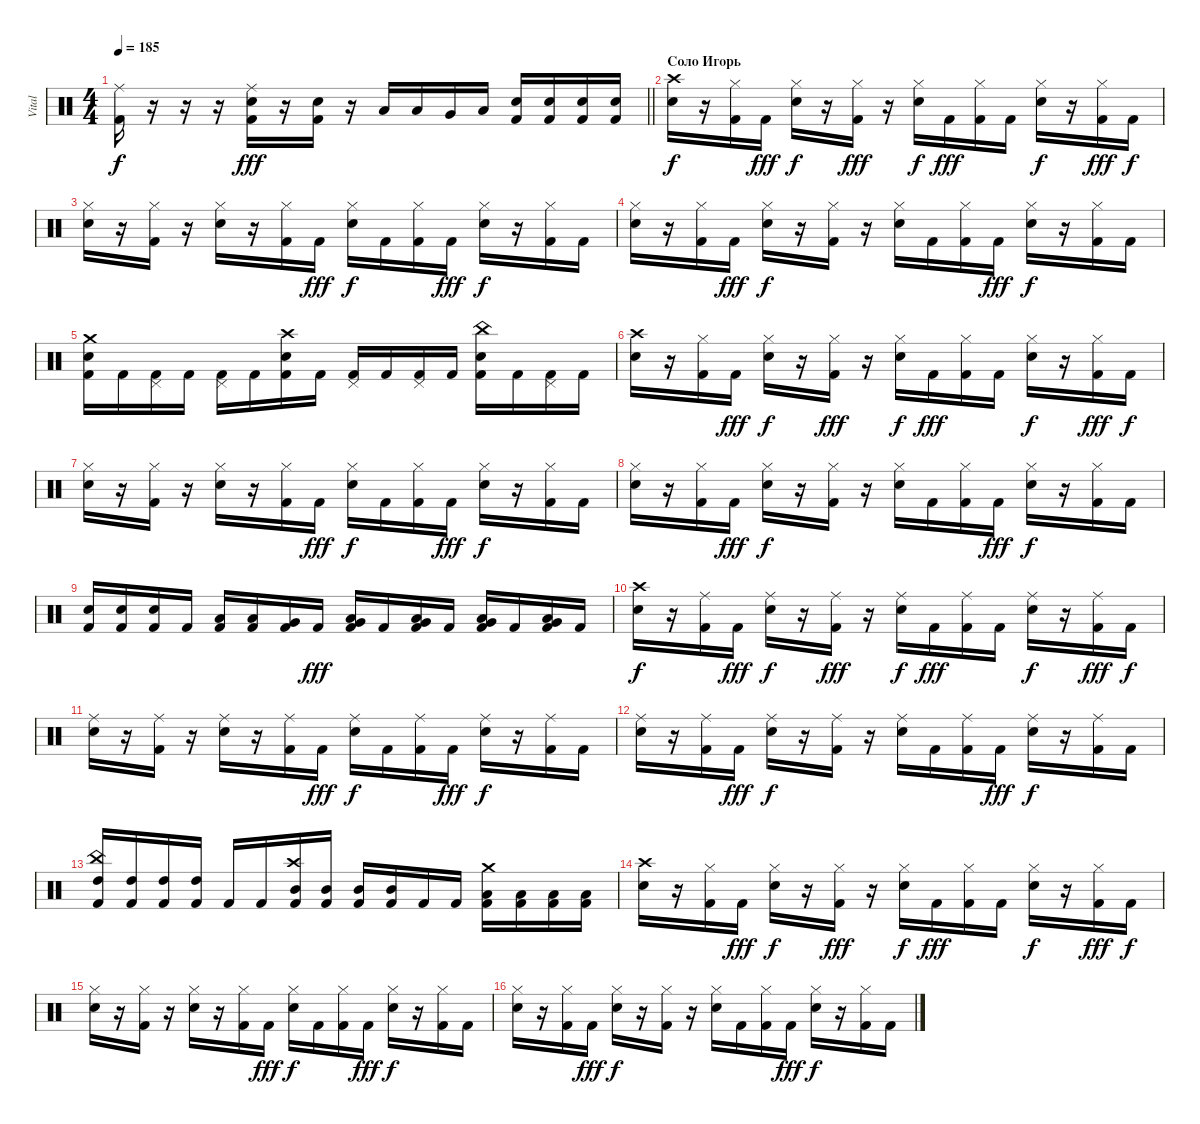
\track ("Vital" "Vital") {instrument percussion}
\staff {score}
\articulation defaults
\ts (4 4)
\tempo 185
\clef neutral
\barLineRight lightlight
\ks c
("Ride (middle)" "Kick (hit) 2").16{dy f} r.16 r.16 r.16 ("Ride (middle)" "Snare (hit) 2" "Kick (hit) 2").16{dy fff} r.16 ("Snare (hit) 2" "Kick (hit) 2").16 r.16 "Low Tom (hit)".16 "Low Tom (hit)".16 "Very Low Tom (hit)".16 "Low Floor Tom (hit)".16 ("Snare (hit) 2" "Kick (hit) 2").16 ("Snare (hit) 2" "Kick (hit) 2").16 ("Snare (hit) 2" "Kick (hit) 2").16 ("Snare (hit) 2" "Kick (hit) 2").16 |
\section ("" "Соло Игорь")
("Crash high (hit)" "Snare (hit) 2").16{dy f} r.16 ("Hi-Hat (closed)" "Kick (hit) 2").16 "Kick (hit) 2".16{dy fff} ("Hi-Hat (closed)" "Snare (hit) 2").16{dy f} r.16 ("Hi-Hat (closed)" "Kick (hit) 2").16{dy fff} r.16 ("Hi-Hat (closed)" "Snare (hit) 2").16{dy f} "Kick (hit) 2".16{dy fff} ("Hi-Hat (closed)" "Kick (hit) 2").16 "Kick (hit) 2".16 ("Hi-Hat (closed)" "Snare (hit) 2").16{dy f} r.16 ("Hi-Hat (closed)" "Kick (hit) 2").16{dy fff} "Kick (hit) 2".16{dy f} |
("Hi-Hat (closed)" "Snare (hit) 2").16 r.16 ("Hi-Hat (closed)" "Kick (hit) 2").16 r.16 ("Hi-Hat (closed)" "Snare (hit) 2").16 r.16 ("Hi-Hat (closed)" "Kick (hit) 2").16 "Kick (hit) 2".16{dy fff} ("Hi-Hat (closed)" "Snare (hit) 2").16{dy f} "Kick (hit) 2".16 ("Hi-Hat (closed)" "Kick (hit) 2").16 "Kick (hit) 2".16{dy fff} ("Hi-Hat (closed)" "Snare (hit) 2").16{dy f} r.16 ("Hi-Hat (closed)" "Kick (hit) 2").16 "Kick (hit) 2".16 |
("Hi-Hat (closed)" "Snare (hit) 2").16 r.16 ("Hi-Hat (closed)" "Kick (hit) 2").16 "Kick (hit) 2".16{dy fff} ("Hi-Hat (closed)" "Snare (hit) 2").16{dy f} r.16 ("Hi-Hat (closed)" "Kick (hit) 2").16 r.16 ("Hi-Hat (closed)" "Snare (hit) 2").16 "Kick (hit) 2".16 ("Hi-Hat (closed)" "Kick (hit) 2").16 "Kick (hit) 2".16{dy fff} ("Hi-Hat (closed)" "Snare (hit) 2").16{dy f} r.16 ("Hi-Hat (closed)" "Kick (hit) 2").16 "Kick (hit) 2".16 |
("Crash medium (hit)" "Snare (hit) 2" "Kick (hit) 2").16 "Kick (hit) 2".16 ("Pedal Hi-Hat (hit)" "Kick (hit) 2").16 "Kick (hit) 2".16 ("Pedal Hi-Hat (hit)" "Kick (hit) 2").16 "Kick (hit) 2".16 ("Crash high (hit)" "Snare (hit) 2" "Kick (hit) 2").16 "Kick (hit) 2".16 ("Pedal Hi-Hat (hit)" "Kick (hit) 2").16 "Kick (hit) 2".16 ("Pedal Hi-Hat (hit)" "Kick (hit) 2").16 "Kick (hit) 2".16 ("China (hit)" "Snare (hit) 2" "Kick (hit) 2").16 "Kick (hit) 2".16 ("Pedal Hi-Hat (hit)" "Kick (hit) 2").16 "Kick (hit) 2".16 |
("Crash high (hit)" "Snare (hit) 2").16 r.16 ("Hi-Hat (closed)" "Kick (hit) 2").16 "Kick (hit) 2".16{dy fff} ("Hi-Hat (closed)" "Snare (hit) 2").16{dy f} r.16 ("Hi-Hat (closed)" "Kick (hit) 2").16{dy fff} r.16 ("Hi-Hat (closed)" "Snare (hit) 2").16{dy f} "Kick (hit) 2".16{dy fff} ("Hi-Hat (closed)" "Kick (hit) 2").16 "Kick (hit) 2".16 ("Hi-Hat (closed)" "Snare (hit) 2").16{dy f} r.16 ("Hi-Hat (closed)" "Kick (hit) 2").16{dy fff} "Kick (hit) 2".16{dy f} |
("Hi-Hat (closed)" "Snare (hit) 2").16 r.16 ("Hi-Hat (closed)" "Kick (hit) 2").16 r.16 ("Hi-Hat (closed)" "Snare (hit) 2").16 r.16 ("Hi-Hat (closed)" "Kick (hit) 2").16 "Kick (hit) 2".16{dy fff} ("Hi-Hat (closed)" "Snare (hit) 2").16{dy f} "Kick (hit) 2".16 ("Hi-Hat (closed)" "Kick (hit) 2").16 "Kick (hit) 2".16{dy fff} ("Hi-Hat (closed)" "Snare (hit) 2").16{dy f} r.16 ("Hi-Hat (closed)" "Kick (hit) 2").16 "Kick (hit) 2".16 |
("Hi-Hat (closed)" "Snare (hit) 2").16 r.16 ("Hi-Hat (closed)" "Kick (hit) 2").16 "Kick (hit) 2".16{dy fff} ("Hi-Hat (closed)" "Snare (hit) 2").16{dy f} r.16 ("Hi-Hat (closed)" "Kick (hit) 2").16 r.16 ("Hi-Hat (closed)" "Snare (hit) 2").16 "Kick (hit) 2".16 ("Hi-Hat (closed)" "Kick (hit) 2").16 "Kick (hit) 2".16{dy fff} ("Hi-Hat (closed)" "Snare (hit) 2").16{dy f} r.16 ("Hi-Hat (closed)" "Kick (hit) 2").16 "Kick (hit) 2".16 |
("Snare (hit) 2" "Kick (hit) 2").16 ("Snare (hit) 2" "Kick (hit) 2").16 ("Snare (hit) 2" "Kick (hit) 2").16 "Kick (hit) 2".16 ("Low Tom (hit)" "Kick (hit) 2").16 ("Low Tom (hit)" "Kick (hit) 2").16 ("Very Low Tom (hit)" "Kick (hit) 2").16 "Kick (hit) 2".16{dy fff} ("Low Tom (hit)" "Very Low Tom (hit)" "Kick (hit) 2").16 "Kick (hit) 2".16 ("Low Tom (hit)" "Very Low Tom (hit)" "Kick (hit) 2").16 "Kick (hit) 2".16 ("Very Low Tom (hit)" "Low Floor Tom (hit)" "Kick (hit) 2").16 "Kick (hit) 2".16 ("Low Tom (hit)" "Very Low Tom (hit)" "Kick (hit) 2").16 "Kick (hit) 2".16 |
("Crash high (hit)" "Snare (hit) 2").16{dy f} r.16 ("Ride (middle)" "Kick (hit) 2").16 "Kick (hit) 2".16{dy fff} ("Ride (middle)" "Snare (hit) 2").16{dy f} r.16 ("Ride (middle)" "Kick (hit) 2").16{dy fff} r.16 ("Ride (middle)" "Snare (hit) 2").16{dy f} "Kick (hit) 2".16{dy fff} ("Ride (middle)" "Kick (hit) 2").16 "Kick (hit) 2".16 ("Ride (middle)" "Snare (hit) 2").16{dy f} r.16 ("Ride (middle)" "Kick (hit) 2").16{dy fff} "Kick (hit) 2".16{dy f} |
("Ride (middle)" "Snare (hit) 2").16 r.16 ("Ride (middle)" "Kick (hit) 2").16 r.16 ("Ride (middle)" "Snare (hit) 2").16 r.16 ("Ride (middle)" "Kick (hit) 2").16 "Kick (hit) 2".16{dy fff} ("Ride (middle)" "Snare (hit) 2").16{dy f} "Kick (hit) 2".16 ("Ride (middle)" "Kick (hit) 2").16 "Kick (hit) 2".16{dy fff} ("Ride (middle)" "Snare (hit) 2").16{dy f} r.16 ("Ride (middle)" "Kick (hit) 2").16 "Kick (hit) 2".16 |
("Ride (middle)" "Snare (hit) 2").16 r.16 ("Ride (middle)" "Kick (hit) 2").16 "Kick (hit) 2".16{dy fff} ("Ride (middle)" "Snare (hit) 2").16{dy f} r.16 ("Ride (middle)" "Kick (hit) 2").16 r.16 ("Ride (middle)" "Snare (hit) 2").16 "Kick (hit) 2".16 ("Ride (middle)" "Kick (hit) 2").16 "Kick (hit) 2".16{dy fff} ("Ride (middle)" "Snare (hit) 2").16{dy f} r.16 ("Ride (middle)" "Kick (hit) 2").16 "Kick (hit) 2".16 |
("China (hit)" "High Tom (hit)" "Kick (hit) 2").16 ("High Tom (hit)" "Kick (hit) 2").16 ("High Tom (hit)" "Kick (hit) 2").16 ("High Tom (hit)" "Kick (hit) 2").16 "Kick (hit) 2".16 "Kick (hit) 2".16 ("Crash high (hit)" "Mid Tom (hit)" "Kick (hit) 2").16 ("Mid Tom (hit)" "Kick (hit) 2").16 ("Mid Tom (hit)" "Kick (hit) 2").16 ("Mid Tom (hit)" "Kick (hit) 2").16 "Kick (hit) 2".16 "Kick (hit) 2".16 ("Crash medium (hit)" "Low Tom (hit)" "Kick (hit) 2").16 ("Low Tom (hit)" "Kick (hit) 2").16 ("Low Tom (hit)" "Kick (hit) 2").16 ("Low Tom (hit)" "Kick (hit) 2").16 |
("Crash high (hit)" "Snare (hit) 2").16 r.16 ("Hi-Hat (closed)" "Kick (hit) 2").16 "Kick (hit) 2".16{dy fff} ("Hi-Hat (closed)" "Snare (hit) 2").16{dy f} r.16 ("Hi-Hat (closed)" "Kick (hit) 2").16{dy fff} r.16 ("Hi-Hat (closed)" "Snare (hit) 2").16{dy f} "Kick (hit) 2".16{dy fff} ("Hi-Hat (closed)" "Kick (hit) 2").16 "Kick (hit) 2".16 ("Hi-Hat (closed)" "Snare (hit) 2").16{dy f} r.16 ("Hi-Hat (closed)" "Kick (hit) 2").16{dy fff} "Kick (hit) 2".16{dy f} |
("Hi-Hat (closed)" "Snare (hit) 2").16 r.16 ("Hi-Hat (closed)" "Kick (hit) 2").16 r.16 ("Hi-Hat (closed)" "Snare (hit) 2").16 r.16 ("Hi-Hat (closed)" "Kick (hit) 2").16 "Kick (hit) 2".16{dy fff} ("Hi-Hat (closed)" "Snare (hit) 2").16{dy f} "Kick (hit) 2".16 ("Hi-Hat (closed)" "Kick (hit) 2").16 "Kick (hit) 2".16{dy fff} ("Hi-Hat (closed)" "Snare (hit) 2").16{dy f} r.16 ("Hi-Hat (closed)" "Kick (hit) 2").16 "Kick (hit) 2".16 |
("Hi-Hat (closed)" "Snare (hit) 2").16 r.16 ("Hi-Hat (closed)" "Kick (hit) 2").16 "Kick (hit) 2".16{dy fff} ("Hi-Hat (closed)" "Snare (hit) 2").16{dy f} r.16 ("Hi-Hat (closed)" "Kick (hit) 2").16 r.16 ("Hi-Hat (closed)" "Snare (hit) 2").16 "Kick (hit) 2".16 ("Hi-Hat (closed)" "Kick (hit) 2").16 "Kick (hit) 2".16{dy fff} ("Hi-Hat (closed)" "Snare (hit) 2").16{dy f} r.16 ("Hi-Hat (closed)" "Kick (hit) 2").16 "Kick (hit) 2".16
